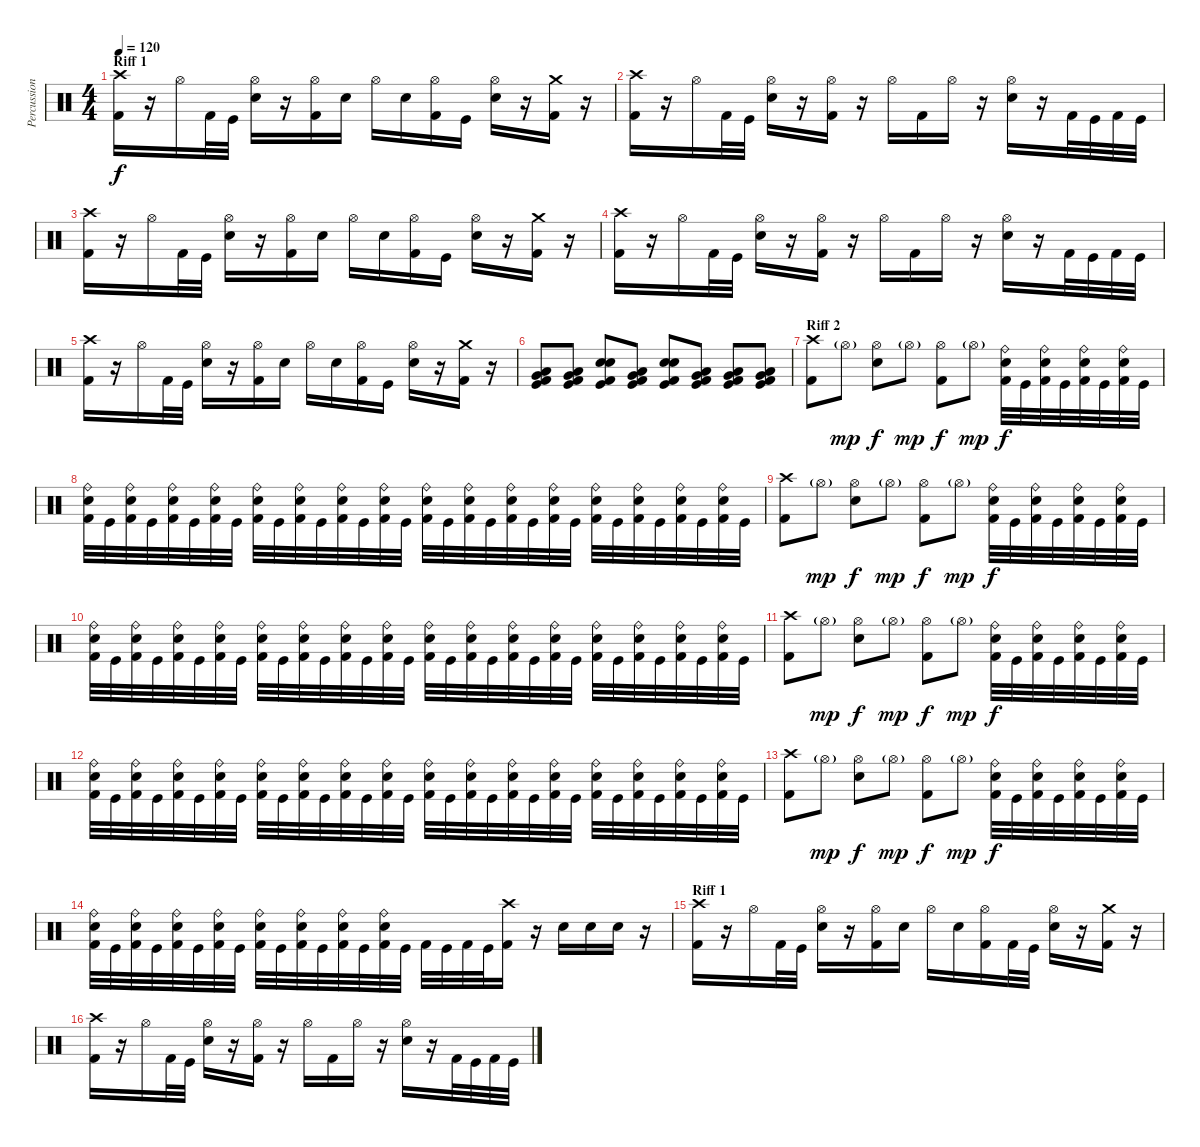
\track ("Percussion" "Percussion") {instrument percussion}
\staff {score}
\articulation defaults
\ts (4 4)
\section ("" "Riff 1")
\tempo 120
\clef neutral
\ks c
("Kick (hit) 2" "Crash high (hit)").16{dy f} r.16 "Hi-Hat (open)".16 "Kick (hit) 2".32 "Kick (hit)".32 ("Electric Snare (hit)" "Hi-Hat (open)").16 r.16 ("Kick (hit) 2" "Hi-Hat (open)").16 "Electric Snare (hit)".16 "Hi-Hat (open)".16 "Electric Snare (hit)".16 ("Kick (hit) 2" "Hi-Hat (open)").16 "Kick (hit)".16 ("Electric Snare (hit)" "Hi-Hat (open)").16 r.16 ("Kick (hit) 2" "Crash medium (hit)").16 r.16 |
("Kick (hit) 2" "Crash high (hit)").16 r.16 "Hi-Hat (open)".16 "Kick (hit) 2".32 "Kick (hit)".32 ("Electric Snare (hit)" "Hi-Hat (open)").16 r.16 ("Kick (hit) 2" "Hi-Hat (open)").16 r.16 "Hi-Hat (open)".16 "Kick (hit) 2".16 "Hi-Hat (open)".16 r.16 ("Electric Snare (hit)" "Hi-Hat (open)").16 r.16 "Kick (hit) 2".32 "Kick (hit)".32 "Kick (hit) 2".32 "Kick (hit)".32 |
("Kick (hit) 2" "Crash high (hit)").16 r.16 "Hi-Hat (open)".16 "Kick (hit) 2".32 "Kick (hit)".32 ("Electric Snare (hit)" "Hi-Hat (open)").16 r.16 ("Kick (hit) 2" "Hi-Hat (open)").16 "Electric Snare (hit)".16 "Hi-Hat (open)".16 "Electric Snare (hit)".16 ("Kick (hit) 2" "Hi-Hat (open)").16 "Kick (hit)".16 ("Electric Snare (hit)" "Hi-Hat (open)").16 r.16 ("Kick (hit) 2" "Crash medium (hit)").16 r.16 |
("Kick (hit) 2" "Crash high (hit)").16 r.16 "Hi-Hat (open)".16 "Kick (hit) 2".32 "Kick (hit)".32 ("Electric Snare (hit)" "Hi-Hat (open)").16 r.16 ("Kick (hit) 2" "Hi-Hat (open)").16 r.16 "Hi-Hat (open)".16 "Kick (hit) 2".16 "Hi-Hat (open)".16 r.16 ("Electric Snare (hit)" "Hi-Hat (open)").16 r.16 "Kick (hit) 2".32 "Kick (hit)".32 "Kick (hit) 2".32 "Kick (hit)".32 |
("Kick (hit) 2" "Crash high (hit)").16 r.16 "Hi-Hat (open)".16 "Kick (hit) 2".32 "Kick (hit)".32 ("Electric Snare (hit)" "Hi-Hat (open)").16 r.16 ("Kick (hit) 2" "Hi-Hat (open)").16 "Electric Snare (hit)".16 "Hi-Hat (open)".16 "Electric Snare (hit)".16 ("Kick (hit) 2" "Hi-Hat (open)").16 "Kick (hit)".16 ("Electric Snare (hit)" "Hi-Hat (open)").16 r.16 ("Kick (hit) 2" "Crash medium (hit)").16 r.16 |
("Kick (hit) 2" "Low Tom (hit)" "Very Low Tom (hit)" "Kick (hit)").8 ("Kick (hit) 2" "Low Tom (hit)" "Very Low Tom (hit)" "Kick (hit)").8 ("Electric Snare (hit)" "Electric Snare (hit)" "Kick (hit) 2" "Kick (hit)").8 ("Kick (hit) 2" "Low Tom (hit)" "Very Low Tom (hit)" "Kick (hit)").8 ("Electric Snare (hit)" "Electric Snare (hit)" "Kick (hit) 2" "Kick (hit)").8 ("Kick (hit) 2" "Low Tom (hit)" "Very Low Tom (hit)" "Kick (hit)").8 ("Kick (hit) 2" "Low Tom (hit)" "Very Low Tom (hit)" "Kick (hit)").8 ("Kick (hit) 2" "Low Tom (hit)" "Very Low Tom (hit)" "Kick (hit)").8 |
\section ("" "Riff 2")
("Kick (hit) 2" "Crash high (hit)").8 "Hi-Hat (open)"{g}.8{dy mp} ("Electric Snare (hit)" "Hi-Hat (open)").8{dy f} "Hi-Hat (open)"{g}.8{dy mp} ("Kick (hit) 2" "Hi-Hat (open)").8{dy f} "Hi-Hat (open)"{g}.8{dy mp} ("Kick (hit) 2" "Electric Snare (hit)" "Ride (bell)").32{dy f} "Kick (hit)".32 ("Kick (hit) 2" "Electric Snare (hit)" "Ride (bell)").32 "Kick (hit)".32 ("Kick (hit) 2" "Electric Snare (hit)" "Ride (bell)").32 "Kick (hit)".32 ("Kick (hit) 2" "Electric Snare (hit)" "Ride (bell)").32 "Kick (hit)".32 |
("Kick (hit) 2" "Electric Snare (hit)" "Ride (bell)").32 "Kick (hit)".32 ("Kick (hit) 2" "Electric Snare (hit)" "Ride (bell)").32 "Kick (hit)".32 ("Kick (hit) 2" "Electric Snare (hit)" "Ride (bell)").32 "Kick (hit)".32 ("Kick (hit) 2" "Electric Snare (hit)" "Ride (bell)").32 "Kick (hit)".32 ("Kick (hit) 2" "Electric Snare (hit)" "Ride (bell)").32 "Kick (hit)".32 ("Kick (hit) 2" "Electric Snare (hit)" "Ride (bell)").32 "Kick (hit)".32 ("Kick (hit) 2" "Electric Snare (hit)" "Ride (bell)").32 "Kick (hit)".32 ("Kick (hit) 2" "Electric Snare (hit)" "Ride (bell)").32 "Kick (hit)".32 ("Kick (hit) 2" "Electric Snare (hit)" "Ride (bell)").32 "Kick (hit)".32 ("Kick (hit) 2" "Electric Snare (hit)" "Ride (bell)").32 "Kick (hit)".32 ("Kick (hit) 2" "Electric Snare (hit)" "Ride (bell)").32 "Kick (hit)".32 ("Kick (hit) 2" "Electric Snare (hit)" "Ride (bell)").32 "Kick (hit)".32 ("Kick (hit) 2" "Electric Snare (hit)" "Ride (bell)").32 "Kick (hit)".32 ("Kick (hit) 2" "Electric Snare (hit)" "Ride (bell)").32 "Kick (hit)".32 ("Kick (hit) 2" "Electric Snare (hit)" "Ride (bell)").32 "Kick (hit)".32 ("Kick (hit) 2" "Electric Snare (hit)" "Ride (bell)").32 "Kick (hit)".32 |
("Kick (hit) 2" "Crash high (hit)").8 "Hi-Hat (open)"{g}.8{dy mp} ("Electric Snare (hit)" "Hi-Hat (open)").8{dy f} "Hi-Hat (open)"{g}.8{dy mp} ("Kick (hit) 2" "Hi-Hat (open)").8{dy f} "Hi-Hat (open)"{g}.8{dy mp} ("Kick (hit) 2" "Electric Snare (hit)" "Ride (bell)").32{dy f} "Kick (hit)".32 ("Kick (hit) 2" "Electric Snare (hit)" "Ride (bell)").32 "Kick (hit)".32 ("Kick (hit) 2" "Electric Snare (hit)" "Ride (bell)").32 "Kick (hit)".32 ("Kick (hit) 2" "Electric Snare (hit)" "Ride (bell)").32 "Kick (hit)".32 |
("Kick (hit) 2" "Electric Snare (hit)" "Ride (bell)").32 "Kick (hit)".32 ("Kick (hit) 2" "Electric Snare (hit)" "Ride (bell)").32 "Kick (hit)".32 ("Kick (hit) 2" "Electric Snare (hit)" "Ride (bell)").32 "Kick (hit)".32 ("Kick (hit) 2" "Electric Snare (hit)" "Ride (bell)").32 "Kick (hit)".32 ("Kick (hit) 2" "Electric Snare (hit)" "Ride (bell)").32 "Kick (hit)".32 ("Kick (hit) 2" "Electric Snare (hit)" "Ride (bell)").32 "Kick (hit)".32 ("Kick (hit) 2" "Electric Snare (hit)" "Ride (bell)").32 "Kick (hit)".32 ("Kick (hit) 2" "Electric Snare (hit)" "Ride (bell)").32 "Kick (hit)".32 ("Kick (hit) 2" "Electric Snare (hit)" "Ride (bell)").32 "Kick (hit)".32 ("Kick (hit) 2" "Electric Snare (hit)" "Ride (bell)").32 "Kick (hit)".32 ("Kick (hit) 2" "Electric Snare (hit)" "Ride (bell)").32 "Kick (hit)".32 ("Kick (hit) 2" "Electric Snare (hit)" "Ride (bell)").32 "Kick (hit)".32 ("Kick (hit) 2" "Electric Snare (hit)" "Ride (bell)").32 "Kick (hit)".32 ("Kick (hit) 2" "Electric Snare (hit)" "Ride (bell)").32 "Kick (hit)".32 ("Kick (hit) 2" "Electric Snare (hit)" "Ride (bell)").32 "Kick (hit)".32 ("Kick (hit) 2" "Electric Snare (hit)" "Ride (bell)").32 "Kick (hit)".32 |
("Kick (hit) 2" "Crash high (hit)").8 "Hi-Hat (open)"{g}.8{dy mp} ("Electric Snare (hit)" "Hi-Hat (open)").8{dy f} "Hi-Hat (open)"{g}.8{dy mp} ("Kick (hit) 2" "Hi-Hat (open)").8{dy f} "Hi-Hat (open)"{g}.8{dy mp} ("Kick (hit) 2" "Electric Snare (hit)" "Ride (bell)").32{dy f} "Kick (hit)".32 ("Kick (hit) 2" "Electric Snare (hit)" "Ride (bell)").32 "Kick (hit)".32 ("Kick (hit) 2" "Electric Snare (hit)" "Ride (bell)").32 "Kick (hit)".32 ("Kick (hit) 2" "Electric Snare (hit)" "Ride (bell)").32 "Kick (hit)".32 |
("Kick (hit) 2" "Electric Snare (hit)" "Ride (bell)").32 "Kick (hit)".32 ("Kick (hit) 2" "Electric Snare (hit)" "Ride (bell)").32 "Kick (hit)".32 ("Kick (hit) 2" "Electric Snare (hit)" "Ride (bell)").32 "Kick (hit)".32 ("Kick (hit) 2" "Electric Snare (hit)" "Ride (bell)").32 "Kick (hit)".32 ("Kick (hit) 2" "Electric Snare (hit)" "Ride (bell)").32 "Kick (hit)".32 ("Kick (hit) 2" "Electric Snare (hit)" "Ride (bell)").32 "Kick (hit)".32 ("Kick (hit) 2" "Electric Snare (hit)" "Ride (bell)").32 "Kick (hit)".32 ("Kick (hit) 2" "Electric Snare (hit)" "Ride (bell)").32 "Kick (hit)".32 ("Kick (hit) 2" "Electric Snare (hit)" "Ride (bell)").32 "Kick (hit)".32 ("Kick (hit) 2" "Electric Snare (hit)" "Ride (bell)").32 "Kick (hit)".32 ("Kick (hit) 2" "Electric Snare (hit)" "Ride (bell)").32 "Kick (hit)".32 ("Kick (hit) 2" "Electric Snare (hit)" "Ride (bell)").32 "Kick (hit)".32 ("Kick (hit) 2" "Electric Snare (hit)" "Ride (bell)").32 "Kick (hit)".32 ("Kick (hit) 2" "Electric Snare (hit)" "Ride (bell)").32 "Kick (hit)".32 ("Kick (hit) 2" "Electric Snare (hit)" "Ride (bell)").32 "Kick (hit)".32 ("Kick (hit) 2" "Electric Snare (hit)" "Ride (bell)").32 "Kick (hit)".32 |
("Kick (hit) 2" "Crash high (hit)").8 "Hi-Hat (open)"{g}.8{dy mp} ("Electric Snare (hit)" "Hi-Hat (open)").8{dy f} "Hi-Hat (open)"{g}.8{dy mp} ("Kick (hit) 2" "Hi-Hat (open)").8{dy f} "Hi-Hat (open)"{g}.8{dy mp} ("Kick (hit) 2" "Electric Snare (hit)" "Ride (bell)").32{dy f} "Kick (hit)".32 ("Kick (hit) 2" "Electric Snare (hit)" "Ride (bell)").32 "Kick (hit)".32 ("Kick (hit) 2" "Electric Snare (hit)" "Ride (bell)").32 "Kick (hit)".32 ("Kick (hit) 2" "Electric Snare (hit)" "Ride (bell)").32 "Kick (hit)".32 |
("Kick (hit) 2" "Electric Snare (hit)" "Ride (bell)").32 "Kick (hit)".32 ("Kick (hit) 2" "Electric Snare (hit)" "Ride (bell)").32 "Kick (hit)".32 ("Kick (hit) 2" "Electric Snare (hit)" "Ride (bell)").32 "Kick (hit)".32 ("Kick (hit) 2" "Electric Snare (hit)" "Ride (bell)").32 "Kick (hit)".32 ("Kick (hit) 2" "Electric Snare (hit)" "Ride (bell)").32 "Kick (hit)".32 ("Kick (hit) 2" "Electric Snare (hit)" "Ride (bell)").32 "Kick (hit)".32 ("Kick (hit) 2" "Electric Snare (hit)" "Ride (bell)").32 "Kick (hit)".32 ("Kick (hit) 2" "Electric Snare (hit)" "Ride (bell)").32 "Kick (hit)".32 "Kick (hit) 2".32 "Kick (hit)".32 "Kick (hit) 2".32 "Kick (hit)".32 ("Kick (hit) 2" "Crash high (hit)").16 r.16 "Electric Snare (hit)".16 "Electric Snare (hit)".16 "Electric Snare (hit)".16 r.16 |
\section ("" "Riff 1")
("Kick (hit) 2" "Crash high (hit)").16 r.16 "Hi-Hat (open)".16 "Kick (hit) 2".32 "Kick (hit)".32 ("Electric Snare (hit)" "Hi-Hat (open)").16 r.16 ("Kick (hit) 2" "Hi-Hat (open)").16 "Electric Snare (hit)".16 "Hi-Hat (open)".16 "Electric Snare (hit)".16 ("Kick (hit) 2" "Hi-Hat (open)").16 "Kick (hit) 2".32 "Kick (hit)".32 ("Electric Snare (hit)" "Hi-Hat (open)").16 r.16 ("Kick (hit) 2" "Crash medium (hit)").16 r.16 |
("Kick (hit) 2" "Crash high (hit)").16 r.16 "Hi-Hat (open)".16 "Kick (hit) 2".32 "Kick (hit)".32 ("Electric Snare (hit)" "Hi-Hat (open)").16 r.16 ("Kick (hit) 2" "Hi-Hat (open)").16 r.16 "Hi-Hat (open)".16 "Kick (hit) 2".16 "Hi-Hat (open)".16 r.16 ("Electric Snare (hit)" "Hi-Hat (open)").16 r.16 "Kick (hit) 2".32 "Kick (hit)".32 "Kick (hit) 2".32 "Kick (hit)".32
